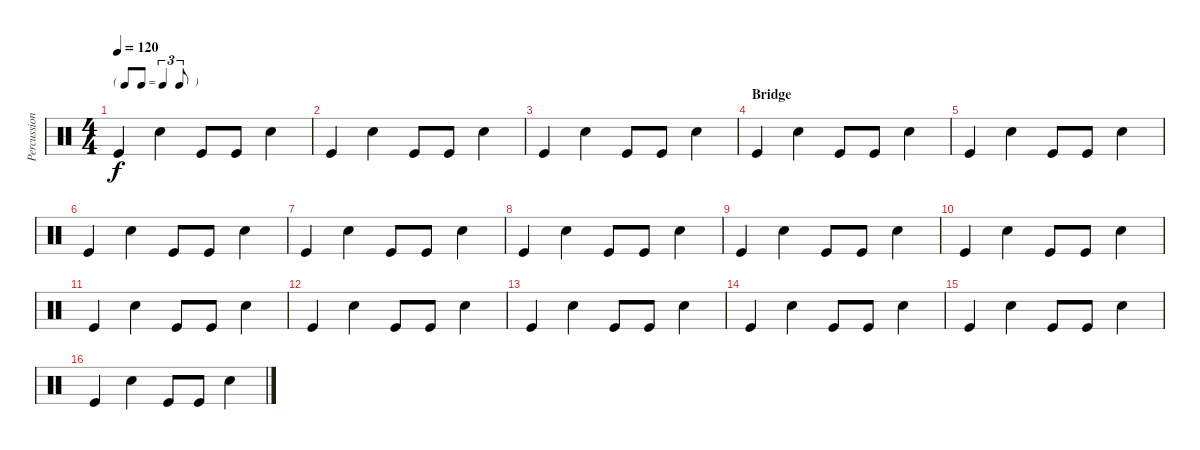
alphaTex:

\track ("Percussion" "Percussion") {instrument percussion}
\staff {score}
\articulation defaults
\ts (4 4)
\tf triplet8th
\tempo 120
\clef neutral
\ks c "Kick (hit)".4{dy f} "Snare (hit) 2".4 "Kick (hit)".8 "Kick (hit)".8 "Snare (hit) 2".4
|
"Kick (hit)".4 "Snare (hit) 2".4 "Kick (hit)".8 "Kick (hit)".8 "Snare (hit) 2".4 |
"Kick (hit)".4 "Snare (hit) 2".4 "Kick (hit)".8 "Kick (hit)".8 "Snare (hit) 2".4 |
\section ("" "Bridge")
"Kick (hit)".4 "Snare (hit) 2".4 "Kick (hit)".8 "Kick (hit)".8 "Snare (hit) 2".4 |
"Kick (hit)".4 "Snare (hit) 2".4 "Kick (hit)".8 "Kick (hit)".8 "Snare (hit) 2".4 |
"Kick (hit)".4 "Snare (hit) 2".4 "Kick (hit)".8 "Kick (hit)".8 "Snare (hit) 2".4 |
"Kick (hit)".4 "Snare (hit) 2".4 "Kick (hit)".8 "Kick (hit)".8 "Snare (hit) 2".4 |
"Kick (hit)".4 "Snare (hit) 2".4 "Kick (hit)".8 "Kick (hit)".8 "Snare (hit) 2".4 |
"Kick (hit)".4 "Snare (hit) 2".4 "Kick (hit)".8 "Kick (hit)".8 "Snare (hit) 2".4 |
"Kick (hit)".4 "Snare (hit) 2".4 "Kick (hit)".8 "Kick (hit)".8 "Snare (hit) 2".4 |
"Kick (hit)".4 "Snare (hit) 2".4 "Kick (hit)".8 "Kick (hit)".8 "Snare (hit) 2".4 |
"Kick (hit)".4 "Snare (hit) 2".4 "Kick (hit)".8 "Kick (hit)".8 "Snare (hit) 2".4 |
"Kick (hit)".4 "Snare (hit) 2".4 "Kick (hit)".8 "Kick (hit)".8 "Snare (hit) 2".4 |
"Kick (hit)".4 "Snare (hit) 2".4 "Kick (hit)".8 "Kick (hit)".8 "Snare (hit) 2".4 |
"Kick (hit)".4 "Snare (hit) 2".4 "Kick (hit)".8 "Kick (hit)".8 "Snare (hit) 2".4 |
"Kick (hit)".4 "Snare (hit) 2".4 "Kick (hit)".8 "Kick (hit)".8 "Snare (hit) 2".4
